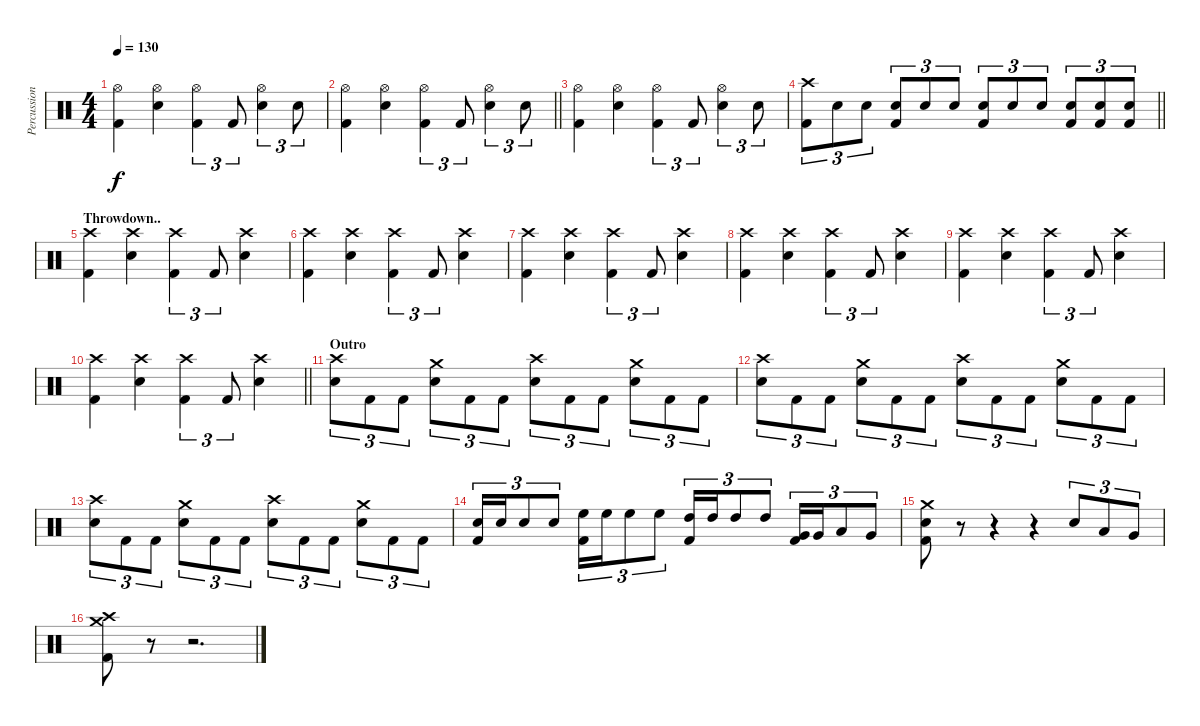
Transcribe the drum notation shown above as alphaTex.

\track ("Percussion" "Percussion") {instrument percussion}
\staff {score}
\articulation defaults
\ts (4 4)
\tempo 130
\clef neutral
\ks c
("Hi-Hat (open)" "Kick (hit) 2").4{dy f} ("Hi-Hat (open)" "Electric Snare (hit)").4 ("Hi-Hat (open)" "Kick (hit) 2").4{tu (3 2)} "Kick (hit) 2".8{tu (3 2)} ("Hi-Hat (open)" "Electric Snare (hit)").4{tu (3 2)} "Electric Snare (hit)".8{tu (3 2)} |
\barLineRight lightlight
("Hi-Hat (open)" "Kick (hit) 2").4 ("Hi-Hat (open)" "Electric Snare (hit)").4 ("Hi-Hat (open)" "Kick (hit) 2").4{tu (3 2)} "Kick (hit) 2".8{tu (3 2)} ("Hi-Hat (open)" "Electric Snare (hit)").4{tu (3 2)} "Electric Snare (hit)".8{tu (3 2)} |
("Hi-Hat (open)" "Kick (hit) 2").4 ("Hi-Hat (open)" "Electric Snare (hit)").4 ("Hi-Hat (open)" "Kick (hit) 2").4{tu (3 2)} "Kick (hit) 2".8{tu (3 2)} ("Hi-Hat (open)" "Electric Snare (hit)").4{tu (3 2)} "Electric Snare (hit)".8{tu (3 2)} |
\barLineRight lightlight
("Crash high (hit)" "Kick (hit) 2").8{tu (3 2)} "Electric Snare (hit)".8{tu (3 2)} "Electric Snare (hit)".8{tu (3 2)} ("Electric Snare (hit)" "Kick (hit) 2").8{tu (3 2)} "Electric Snare (hit)".8{tu (3 2)} "Electric Snare (hit)".8{tu (3 2)} ("Electric Snare (hit)" "Kick (hit) 2").8{tu (3 2)} "Electric Snare (hit)".8{tu (3 2)} "Electric Snare (hit)".8{tu (3 2)} ("Electric Snare (hit)" "Kick (hit) 2").8{tu (3 2)} ("Electric Snare (hit)" "Kick (hit) 2").8{tu (3 2)} ("Electric Snare (hit)" "Kick (hit) 2").8{tu (3 2)} |
\section ("" "Throwdown..")
("Crash high (hit)" "Kick (hit) 2").4 ("Crash high (hit)" "Electric Snare (hit)").4 ("Crash high (hit)" "Kick (hit) 2").4{tu (3 2)} "Kick (hit) 2".8{tu (3 2)} ("Crash high (hit)" "Electric Snare (hit)").4 |
("Crash high (hit)" "Kick (hit) 2").4 ("Crash high (hit)" "Electric Snare (hit)").4 ("Crash high (hit)" "Kick (hit) 2").4{tu (3 2)} "Kick (hit) 2".8{tu (3 2)} ("Crash high (hit)" "Electric Snare (hit)").4 |
("Crash high (hit)" "Kick (hit) 2").4 ("Crash high (hit)" "Electric Snare (hit)").4 ("Crash high (hit)" "Kick (hit) 2").4{tu (3 2)} "Kick (hit) 2".8{tu (3 2)} ("Crash high (hit)" "Electric Snare (hit)").4 |
("Crash high (hit)" "Kick (hit) 2").4 ("Crash high (hit)" "Electric Snare (hit)").4 ("Crash high (hit)" "Kick (hit) 2").4{tu (3 2)} "Kick (hit) 2".8{tu (3 2)} ("Crash high (hit)" "Electric Snare (hit)").4 |
("Crash high (hit)" "Kick (hit) 2").4 ("Crash high (hit)" "Electric Snare (hit)").4 ("Crash high (hit)" "Kick (hit) 2").4{tu (3 2)} "Kick (hit) 2".8{tu (3 2)} ("Crash high (hit)" "Electric Snare (hit)").4 |
\barLineRight lightlight
("Crash high (hit)" "Kick (hit) 2").4 ("Crash high (hit)" "Electric Snare (hit)").4 ("Crash high (hit)" "Kick (hit) 2").4{tu (3 2)} "Kick (hit) 2".8{tu (3 2)} ("Crash high (hit)" "Electric Snare (hit)").4 |
\section ("" "Outro")
("Crash high (hit)" "Electric Snare (hit)").8{tu (3 2)} "Kick (hit) 2".8{tu (3 2)} "Kick (hit) 2".8{tu (3 2)} ("Crash medium (hit)" "Electric Snare (hit)").8{tu (3 2)} "Kick (hit) 2".8{tu (3 2)} "Kick (hit) 2".8{tu (3 2)} ("Crash high (hit)" "Electric Snare (hit)").8{tu (3 2)} "Kick (hit) 2".8{tu (3 2)} "Kick (hit) 2".8{tu (3 2)} ("Crash medium (hit)" "Electric Snare (hit)").8{tu (3 2)} "Kick (hit) 2".8{tu (3 2)} "Kick (hit) 2".8{tu (3 2)} |
("Crash high (hit)" "Electric Snare (hit)").8{tu (3 2)} "Kick (hit) 2".8{tu (3 2)} "Kick (hit) 2".8{tu (3 2)} ("Crash medium (hit)" "Electric Snare (hit)").8{tu (3 2)} "Kick (hit) 2".8{tu (3 2)} "Kick (hit) 2".8{tu (3 2)} ("Crash high (hit)" "Electric Snare (hit)").8{tu (3 2)} "Kick (hit) 2".8{tu (3 2)} "Kick (hit) 2".8{tu (3 2)} ("Crash medium (hit)" "Electric Snare (hit)").8{tu (3 2)} "Kick (hit) 2".8{tu (3 2)} "Kick (hit) 2".8{tu (3 2)} |
("Crash high (hit)" "Electric Snare (hit)").8{tu (3 2)} "Kick (hit) 2".8{tu (3 2)} "Kick (hit) 2".8{tu (3 2)} ("Crash medium (hit)" "Electric Snare (hit)").8{tu (3 2)} "Kick (hit) 2".8{tu (3 2)} "Kick (hit) 2".8{tu (3 2)} ("Crash high (hit)" "Electric Snare (hit)").8{tu (3 2)} "Kick (hit) 2".8{tu (3 2)} "Kick (hit) 2".8{tu (3 2)} ("Crash medium (hit)" "Electric Snare (hit)").8{tu (3 2)} "Kick (hit) 2".8{tu (3 2)} "Kick (hit) 2".8{tu (3 2)} |
("Electric Snare (hit)" "Kick (hit) 2").16{tu (3 2)} "Electric Snare (hit)".16{tu (3 2)} "Electric Snare (hit)".8{tu (3 2)} "Electric Snare (hit)".8{tu (3 2)} ("High Floor Tom (hit)" "Kick (hit) 2").16{tu (3 2)} "High Floor Tom (hit)".16{tu (3 2)} "High Floor Tom (hit)".8{tu (3 2)} "High Floor Tom (hit)".8{tu (3 2)} ("High Tom (hit)" "Kick (hit) 2").16{tu (3 2)} "High Tom (hit)".16{tu (3 2)} "High Tom (hit)".8{tu (3 2)} "High Tom (hit)".8{tu (3 2)} ("Very Low Tom (hit)" "Kick (hit) 2").16{tu (3 2)} "Very Low Tom (hit)".16{tu (3 2)} "Low Floor Tom (hit)".8{tu (3 2)} "Very Low Tom (hit)".8{tu (3 2)} |
("Crash medium (hit)" "Electric Snare (hit)" "Kick (hit) 2").8 r.8 r.4 r.4 "Electric Snare (hit)".8{tu (3 2)} "Low Tom (hit)".8{tu (3 2)} "Very Low Tom (hit)".8{tu (3 2)} |
("Crash high (hit)" "Crash medium (hit)" "Kick (hit) 2").8 r.8 r.2{d}
